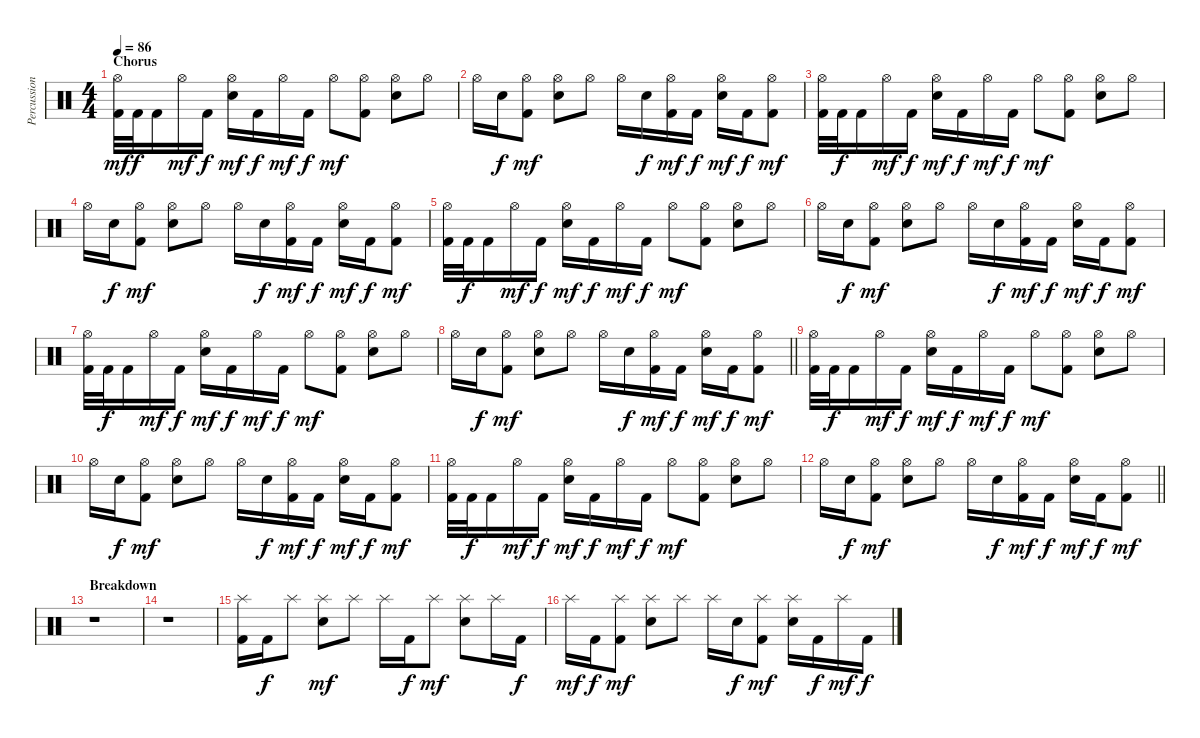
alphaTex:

\track ("Percussion" "Percussion") {instrument percussion}
\staff {score}
\articulation defaults
\ts (4 4)
\section ("" "Chorus ")
\tempo 86
\clef neutral
\ks c
("Hi-Hat (open)" "Kick (hit) 2").32{dy mf} "Kick (hit) 2".32{dy f} "Kick (hit) 2".16 "Hi-Hat (open)".16{dy mf} "Kick (hit) 2".16{dy f} ("Hi-Hat (open)" "Electric Snare (hit)").16{dy mf} "Kick (hit) 2".16{dy f} "Hi-Hat (open)".16{dy mf} "Kick (hit) 2".16{dy f} "Hi-Hat (open)".8{dy mf} ("Hi-Hat (open)" "Kick (hit) 2").8 ("Hi-Hat (open)" "Electric Snare (hit)").8 "Hi-Hat (open)".8 |
"Hi-Hat (open)".16 "Electric Snare (hit)".16{dy f} ("Hi-Hat (open)" "Kick (hit) 2").8{dy mf} ("Hi-Hat (open)" "Electric Snare (hit)").8 "Hi-Hat (open)".8 "Hi-Hat (open)".16 "Electric Snare (hit)".16{dy f} ("Hi-Hat (open)" "Kick (hit) 2").16{dy mf} "Kick (hit) 2".16{dy f} ("Hi-Hat (open)" "Electric Snare (hit)").16{dy mf} "Kick (hit) 2".16{dy f} ("Hi-Hat (open)" "Kick (hit) 2").8{dy mf} |
("Hi-Hat (open)" "Kick (hit) 2").32 "Kick (hit) 2".32{dy f} "Kick (hit) 2".16 "Hi-Hat (open)".16{dy mf} "Kick (hit) 2".16{dy f} ("Hi-Hat (open)" "Electric Snare (hit)").16{dy mf} "Kick (hit) 2".16{dy f} "Hi-Hat (open)".16{dy mf} "Kick (hit) 2".16{dy f} "Hi-Hat (open)".8{dy mf} ("Hi-Hat (open)" "Kick (hit) 2").8 ("Hi-Hat (open)" "Electric Snare (hit)").8 "Hi-Hat (open)".8 |
"Hi-Hat (open)".16 "Electric Snare (hit)".16{dy f} ("Hi-Hat (open)" "Kick (hit) 2").8{dy mf} ("Hi-Hat (open)" "Electric Snare (hit)").8 "Hi-Hat (open)".8 "Hi-Hat (open)".16 "Electric Snare (hit)".16{dy f} ("Hi-Hat (open)" "Kick (hit) 2").16{dy mf} "Kick (hit) 2".16{dy f} ("Hi-Hat (open)" "Electric Snare (hit)").16{dy mf} "Kick (hit) 2".16{dy f} ("Hi-Hat (open)" "Kick (hit) 2").8{dy mf} |
("Hi-Hat (open)" "Kick (hit) 2").32 "Kick (hit) 2".32{dy f} "Kick (hit) 2".16 "Hi-Hat (open)".16{dy mf} "Kick (hit) 2".16{dy f} ("Hi-Hat (open)" "Electric Snare (hit)").16{dy mf} "Kick (hit) 2".16{dy f} "Hi-Hat (open)".16{dy mf} "Kick (hit) 2".16{dy f} "Hi-Hat (open)".8{dy mf} ("Hi-Hat (open)" "Kick (hit) 2").8 ("Hi-Hat (open)" "Electric Snare (hit)").8 "Hi-Hat (open)".8 |
"Hi-Hat (open)".16 "Electric Snare (hit)".16{dy f} ("Hi-Hat (open)" "Kick (hit) 2").8{dy mf} ("Hi-Hat (open)" "Electric Snare (hit)").8 "Hi-Hat (open)".8 "Hi-Hat (open)".16 "Electric Snare (hit)".16{dy f} ("Hi-Hat (open)" "Kick (hit) 2").16{dy mf} "Kick (hit) 2".16{dy f} ("Hi-Hat (open)" "Electric Snare (hit)").16{dy mf} "Kick (hit) 2".16{dy f} ("Hi-Hat (open)" "Kick (hit) 2").8{dy mf} |
("Hi-Hat (open)" "Kick (hit) 2").32 "Kick (hit) 2".32{dy f} "Kick (hit) 2".16 "Hi-Hat (open)".16{dy mf} "Kick (hit) 2".16{dy f} ("Hi-Hat (open)" "Electric Snare (hit)").16{dy mf} "Kick (hit) 2".16{dy f} "Hi-Hat (open)".16{dy mf} "Kick (hit) 2".16{dy f} "Hi-Hat (open)".8{dy mf} ("Hi-Hat (open)" "Kick (hit) 2").8 ("Hi-Hat (open)" "Electric Snare (hit)").8 "Hi-Hat (open)".8 |
\barLineRight lightlight "Hi-Hat (open)".16 "Electric Snare (hit)".16{dy f}
("Hi-Hat (open)" "Kick (hit) 2").8{dy mf} ("Hi-Hat (open)" "Electric Snare (hit)").8 "Hi-Hat (open)".8 "Hi-Hat (open)".16 "Electric Snare (hit)".16{dy f} ("Hi-Hat (open)" "Kick (hit) 2").16{dy mf} "Kick (hit) 2".16{dy f} ("Hi-Hat (open)" "Electric Snare (hit)").16{dy mf} "Kick (hit) 2".16{dy f} ("Hi-Hat (open)" "Kick (hit) 2").8{dy mf} |
("Hi-Hat (open)" "Kick (hit) 2").32 "Kick (hit) 2".32{dy f} "Kick (hit) 2".16 "Hi-Hat (open)".16{dy mf} "Kick (hit) 2".16{dy f} ("Hi-Hat (open)" "Electric Snare (hit)").16{dy mf} "Kick (hit) 2".16{dy f} "Hi-Hat (open)".16{dy mf} "Kick (hit) 2".16{dy f} "Hi-Hat (open)".8{dy mf} ("Hi-Hat (open)" "Kick (hit) 2").8 ("Hi-Hat (open)" "Electric Snare (hit)").8 "Hi-Hat (open)".8 |
"Hi-Hat (open)".16 "Electric Snare (hit)".16{dy f} ("Hi-Hat (open)" "Kick (hit) 2").8{dy mf} ("Hi-Hat (open)" "Electric Snare (hit)").8 "Hi-Hat (open)".8 "Hi-Hat (open)".16 "Electric Snare (hit)".16{dy f} ("Hi-Hat (open)" "Kick (hit) 2").16{dy mf} "Kick (hit) 2".16{dy f} ("Hi-Hat (open)" "Electric Snare (hit)").16{dy mf} "Kick (hit) 2".16{dy f} ("Hi-Hat (open)" "Kick (hit) 2").8{dy mf} |
("Hi-Hat (open)" "Kick (hit) 2").32 "Kick (hit) 2".32{dy f} "Kick (hit) 2".16 "Hi-Hat (open)".16{dy mf} "Kick (hit) 2".16{dy f} ("Hi-Hat (open)" "Electric Snare (hit)").16{dy mf} "Kick (hit) 2".16{dy f} "Hi-Hat (open)".16{dy mf} "Kick (hit) 2".16{dy f} "Hi-Hat (open)".8{dy mf} ("Hi-Hat (open)" "Kick (hit) 2").8 ("Hi-Hat (open)" "Electric Snare (hit)").8 "Hi-Hat (open)".8 |
\barLineRight lightlight "Hi-Hat (open)".16 "Electric Snare (hit)".16{dy f}
("Hi-Hat (open)" "Kick (hit) 2").8{dy mf} ("Hi-Hat (open)" "Electric Snare (hit)").8 "Hi-Hat (open)".8 "Hi-Hat (open)".16 "Electric Snare (hit)".16{dy f} ("Hi-Hat (open)" "Kick (hit) 2").16{dy mf} "Kick (hit) 2".16{dy f} ("Hi-Hat (open)" "Electric Snare (hit)").16{dy mf} "Kick (hit) 2".16{dy f} ("Hi-Hat (open)" "Kick (hit) 2").8{dy mf} |
\section ("" "Breakdown")
r.1 |
r.1 |
("Splash (hit)" "Kick (hit) 2").16 "Kick (hit) 2".16{dy f} "Splash (hit)".8 ("Splash (hit)" "Electric Snare (hit)").8{dy mf} "Splash (hit)".8 "Splash (hit)".16 "Kick (hit) 2".16{dy f} "Splash (hit)".8{dy mf} ("Splash (hit)" "Electric Snare (hit)").8 "Splash (hit)".16 "Kick (hit) 2".16{dy f} |
"Splash (hit)".16{dy mf} "Kick (hit) 2".16{dy f} ("Splash (hit)" "Kick (hit) 2").8{dy mf} ("Splash (hit)" "Electric Snare (hit)").8 "Splash (hit)".8 "Splash (hit)".16 "Electric Snare (hit)".16{dy f} ("Splash (hit)" "Kick (hit) 2").8{dy mf} ("Splash (hit)" "Electric Snare (hit)").16 "Kick (hit) 2".16{dy f} "Splash (hit)".16{dy mf} "Kick (hit) 2".16{dy f}
